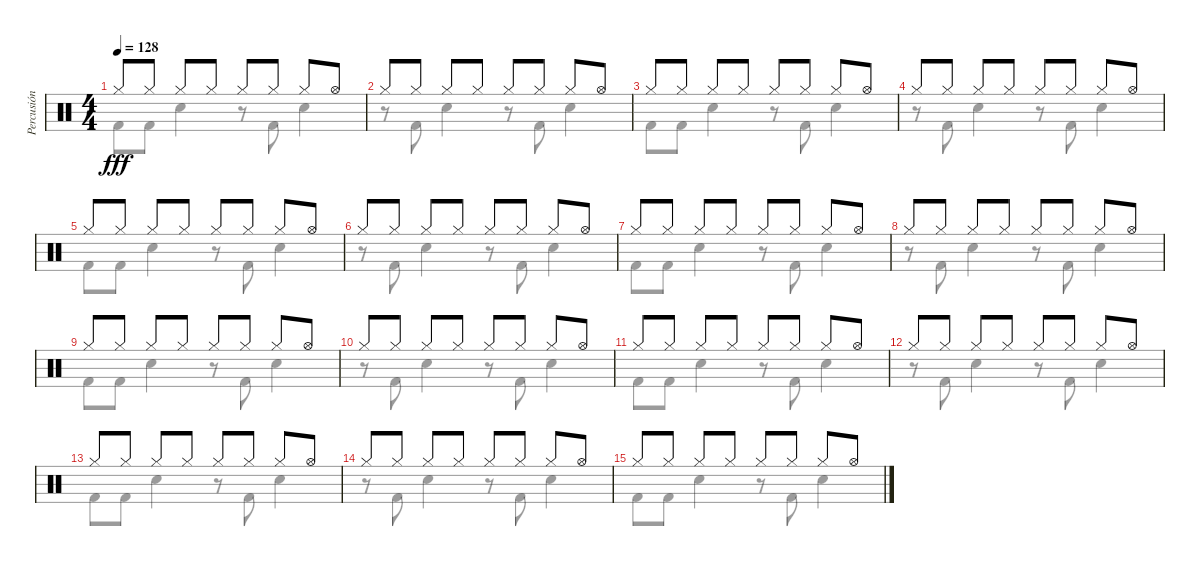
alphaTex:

\track ("Percusión" "Percusión") {instrument percussion}
\staff {score}
\articulation defaults
\voice
\ts (4 4)
\tempo 128
\clef neutral
\ks c "Hi-Hat (closed)".8{dy fff} "Hi-Hat (closed)".8 "Hi-Hat (closed)".8 "Hi-Hat (closed)".8 "Hi-Hat (closed)".8 "Hi-Hat (closed)".8 "Hi-Hat (closed)".8 "Hi-Hat (open)".8
|
"Hi-Hat (closed)".8 "Hi-Hat (closed)".8 "Hi-Hat (closed)".8 "Hi-Hat (closed)".8 "Hi-Hat (closed)".8 "Hi-Hat (closed)".8 "Hi-Hat (closed)".8 "Hi-Hat (open)".8 |
"Hi-Hat (closed)".8 "Hi-Hat (closed)".8 "Hi-Hat (closed)".8 "Hi-Hat (closed)".8 "Hi-Hat (closed)".8 "Hi-Hat (closed)".8 "Hi-Hat (closed)".8 "Hi-Hat (open)".8 |
"Hi-Hat (closed)".8 "Hi-Hat (closed)".8 "Hi-Hat (closed)".8 "Hi-Hat (closed)".8 "Hi-Hat (closed)".8 "Hi-Hat (closed)".8 "Hi-Hat (closed)".8 "Hi-Hat (open)".8 |
"Hi-Hat (closed)".8 "Hi-Hat (closed)".8 "Hi-Hat (closed)".8 "Hi-Hat (closed)".8 "Hi-Hat (closed)".8 "Hi-Hat (closed)".8 "Hi-Hat (closed)".8 "Hi-Hat (open)".8 |
"Hi-Hat (closed)".8 "Hi-Hat (closed)".8 "Hi-Hat (closed)".8 "Hi-Hat (closed)".8 "Hi-Hat (closed)".8 "Hi-Hat (closed)".8 "Hi-Hat (closed)".8 "Hi-Hat (open)".8 |
"Hi-Hat (closed)".8 "Hi-Hat (closed)".8 "Hi-Hat (closed)".8 "Hi-Hat (closed)".8 "Hi-Hat (closed)".8 "Hi-Hat (closed)".8 "Hi-Hat (closed)".8 "Hi-Hat (open)".8 |
"Hi-Hat (closed)".8 "Hi-Hat (closed)".8 "Hi-Hat (closed)".8 "Hi-Hat (closed)".8 "Hi-Hat (closed)".8 "Hi-Hat (closed)".8 "Hi-Hat (closed)".8 "Hi-Hat (open)".8 |
"Hi-Hat (closed)".8 "Hi-Hat (closed)".8 "Hi-Hat (closed)".8 "Hi-Hat (closed)".8 "Hi-Hat (closed)".8 "Hi-Hat (closed)".8 "Hi-Hat (closed)".8 "Hi-Hat (open)".8 |
"Hi-Hat (closed)".8 "Hi-Hat (closed)".8 "Hi-Hat (closed)".8 "Hi-Hat (closed)".8 "Hi-Hat (closed)".8 "Hi-Hat (closed)".8 "Hi-Hat (closed)".8 "Hi-Hat (open)".8 |
"Hi-Hat (closed)".8 "Hi-Hat (closed)".8 "Hi-Hat (closed)".8 "Hi-Hat (closed)".8 "Hi-Hat (closed)".8 "Hi-Hat (closed)".8 "Hi-Hat (closed)".8 "Hi-Hat (open)".8 |
"Hi-Hat (closed)".8 "Hi-Hat (closed)".8 "Hi-Hat (closed)".8 "Hi-Hat (closed)".8 "Hi-Hat (closed)".8 "Hi-Hat (closed)".8 "Hi-Hat (closed)".8 "Hi-Hat (open)".8 |
"Hi-Hat (closed)".8 "Hi-Hat (closed)".8 "Hi-Hat (closed)".8 "Hi-Hat (closed)".8 "Hi-Hat (closed)".8 "Hi-Hat (closed)".8 "Hi-Hat (closed)".8 "Hi-Hat (open)".8 |
"Hi-Hat (closed)".8 "Hi-Hat (closed)".8 "Hi-Hat (closed)".8 "Hi-Hat (closed)".8 "Hi-Hat (closed)".8 "Hi-Hat (closed)".8 "Hi-Hat (closed)".8 "Hi-Hat (open)".8 |
"Hi-Hat (closed)".8 "Hi-Hat (closed)".8 "Hi-Hat (closed)".8 "Hi-Hat (closed)".8 "Hi-Hat (closed)".8 "Hi-Hat (closed)".8 "Hi-Hat (closed)".8 "Hi-Hat (open)".8
\voice
\clef neutral
\ottava regular
\simile none
\ks c "Kick (hit) 2".8{dy fff} "Kick (hit) 2".8 "Electric Snare (hit)".4
r.8 "Kick (hit) 2".8 "Electric Snare (hit)".4 |
r.8 "Kick (hit) 2".8 "Electric Snare (hit)".4 r.8 "Kick (hit) 2".8 "Electric Snare (hit)".4 |
"Kick (hit) 2".8 "Kick (hit) 2".8 "Electric Snare (hit)".4 r.8 "Kick (hit) 2".8 "Electric Snare (hit)".4 |
r.8 "Kick (hit) 2".8 "Electric Snare (hit)".4 r.8 "Kick (hit) 2".8 "Electric Snare (hit)".4 |
"Kick (hit) 2".8 "Kick (hit) 2".8 "Electric Snare (hit)".4 r.8 "Kick (hit) 2".8 "Electric Snare (hit)".4 |
r.8 "Kick (hit) 2".8 "Electric Snare (hit)".4 r.8 "Kick (hit) 2".8 "Electric Snare (hit)".4 |
"Kick (hit) 2".8 "Kick (hit) 2".8 "Electric Snare (hit)".4 r.8 "Kick (hit) 2".8 "Electric Snare (hit)".4 |
r.8 "Kick (hit) 2".8 "Electric Snare (hit)".4 r.8 "Kick (hit) 2".8 "Electric Snare (hit)".4 |
"Kick (hit) 2".8 "Kick (hit) 2".8 "Electric Snare (hit)".4 r.8 "Kick (hit) 2".8 "Electric Snare (hit)".4 |
r.8 "Kick (hit) 2".8 "Electric Snare (hit)".4 r.8 "Kick (hit) 2".8 "Electric Snare (hit)".4 |
"Kick (hit) 2".8 "Kick (hit) 2".8 "Electric Snare (hit)".4 r.8 "Kick (hit) 2".8 "Electric Snare (hit)".4 |
r.8 "Kick (hit) 2".8 "Electric Snare (hit)".4 r.8 "Kick (hit) 2".8 "Electric Snare (hit)".4 |
"Kick (hit) 2".8 "Kick (hit) 2".8 "Electric Snare (hit)".4 r.8 "Kick (hit) 2".8 "Electric Snare (hit)".4 |
r.8 "Kick (hit) 2".8 "Electric Snare (hit)".4 r.8 "Kick (hit) 2".8 "Electric Snare (hit)".4 |
"Kick (hit) 2".8 "Kick (hit) 2".8 "Electric Snare (hit)".4 r.8 "Kick (hit) 2".8 "Electric Snare (hit)".4
